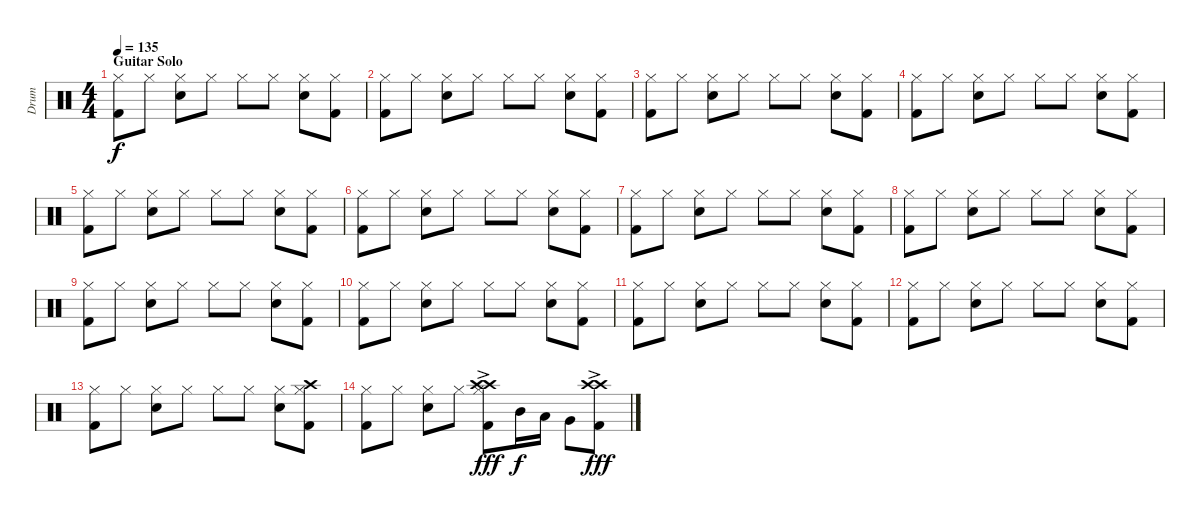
\track ("Drum" "Drum") {instrument percussion}
\staff {score}
\articulation defaults
\ts (4 4)
\section ("" "Guitar Solo")
\tempo 135
\clef neutral
\ks c
("Hi-Hat (closed)" "Kick (hit) 2").8{dy f} "Hi-Hat (closed)".8 ("Snare (hit) 2" "Hi-Hat (closed)").8 "Hi-Hat (closed)".8 "Hi-Hat (closed)".8 "Hi-Hat (closed)".8 ("Snare (hit) 2" "Hi-Hat (closed)").8 ("Hi-Hat (closed)" "Kick (hit) 2").8 |
("Hi-Hat (closed)" "Kick (hit) 2").8 "Hi-Hat (closed)".8 ("Snare (hit) 2" "Hi-Hat (closed)").8 "Hi-Hat (closed)".8 "Hi-Hat (closed)".8 "Hi-Hat (closed)".8 ("Snare (hit) 2" "Hi-Hat (closed)").8 ("Hi-Hat (closed)" "Kick (hit) 2").8 |
("Hi-Hat (closed)" "Kick (hit) 2").8 "Hi-Hat (closed)".8 ("Snare (hit) 2" "Hi-Hat (closed)").8 "Hi-Hat (closed)".8 "Hi-Hat (closed)".8 "Hi-Hat (closed)".8 ("Snare (hit) 2" "Hi-Hat (closed)").8 ("Hi-Hat (closed)" "Kick (hit) 2").8 |
("Hi-Hat (closed)" "Kick (hit) 2").8 "Hi-Hat (closed)".8 ("Snare (hit) 2" "Hi-Hat (closed)").8 "Hi-Hat (closed)".8 "Hi-Hat (closed)".8 "Hi-Hat (closed)".8 ("Snare (hit) 2" "Hi-Hat (closed)").8 ("Hi-Hat (closed)" "Kick (hit) 2").8 |
("Hi-Hat (closed)" "Kick (hit) 2").8 "Hi-Hat (closed)".8 ("Snare (hit) 2" "Hi-Hat (closed)").8 "Hi-Hat (closed)".8 "Hi-Hat (closed)".8 "Hi-Hat (closed)".8 ("Snare (hit) 2" "Hi-Hat (closed)").8 ("Hi-Hat (closed)" "Kick (hit) 2").8 |
("Hi-Hat (closed)" "Kick (hit) 2").8 "Hi-Hat (closed)".8 ("Snare (hit) 2" "Hi-Hat (closed)").8 "Hi-Hat (closed)".8 "Hi-Hat (closed)".8 "Hi-Hat (closed)".8 ("Snare (hit) 2" "Hi-Hat (closed)").8 ("Hi-Hat (closed)" "Kick (hit) 2").8 |
("Hi-Hat (closed)" "Kick (hit) 2").8 "Hi-Hat (closed)".8 ("Snare (hit) 2" "Hi-Hat (closed)").8 "Hi-Hat (closed)".8 "Hi-Hat (closed)".8 "Hi-Hat (closed)".8 ("Snare (hit) 2" "Hi-Hat (closed)").8 ("Hi-Hat (closed)" "Kick (hit) 2").8 |
("Hi-Hat (closed)" "Kick (hit) 2").8 "Hi-Hat (closed)".8 ("Snare (hit) 2" "Hi-Hat (closed)").8 "Hi-Hat (closed)".8 "Hi-Hat (closed)".8 "Hi-Hat (closed)".8 ("Snare (hit) 2" "Hi-Hat (closed)").8 ("Hi-Hat (closed)" "Kick (hit) 2").8 |
("Hi-Hat (closed)" "Kick (hit) 2").8 "Hi-Hat (closed)".8 ("Snare (hit) 2" "Hi-Hat (closed)").8 "Hi-Hat (closed)".8 "Hi-Hat (closed)".8 "Hi-Hat (closed)".8 ("Snare (hit) 2" "Hi-Hat (closed)").8 ("Hi-Hat (closed)" "Kick (hit) 2").8 |
("Hi-Hat (closed)" "Kick (hit) 2").8 "Hi-Hat (closed)".8 ("Snare (hit) 2" "Hi-Hat (closed)").8 "Hi-Hat (closed)".8 "Hi-Hat (closed)".8 "Hi-Hat (closed)".8 ("Snare (hit) 2" "Hi-Hat (closed)").8 ("Hi-Hat (closed)" "Kick (hit) 2").8 |
("Hi-Hat (closed)" "Kick (hit) 2").8 "Hi-Hat (closed)".8 ("Snare (hit) 2" "Hi-Hat (closed)").8 "Hi-Hat (closed)".8 "Hi-Hat (closed)".8 "Hi-Hat (closed)".8 ("Snare (hit) 2" "Hi-Hat (closed)").8 ("Hi-Hat (closed)" "Kick (hit) 2").8 |
("Hi-Hat (closed)" "Kick (hit) 2").8 "Hi-Hat (closed)".8 ("Snare (hit) 2" "Hi-Hat (closed)").8 "Hi-Hat (closed)".8 "Hi-Hat (closed)".8 "Hi-Hat (closed)".8 ("Snare (hit) 2" "Hi-Hat (closed)").8 ("Hi-Hat (closed)" "Kick (hit) 2").8 |
("Hi-Hat (closed)" "Kick (hit) 2").8 "Hi-Hat (closed)".8 ("Snare (hit) 2" "Hi-Hat (closed)").8 "Hi-Hat (closed)".8 "Hi-Hat (closed)".8 "Hi-Hat (closed)".8 ("Snare (hit) 2" "Hi-Hat (closed)").8 ("Crash high (hit)" "Hi-Hat (closed)" "Kick (hit) 2").8 |
("Hi-Hat (closed)" "Kick (hit) 2").8 "Hi-Hat (closed)".8 ("Snare (hit) 2" "Hi-Hat (closed)").8 "Hi-Hat (closed)".8 ("Crash high (hit)"{ac} "Crash high (hit)"{ac} "Hi-Hat (closed)" "Kick (hit) 2").8{dy fff} "Mid Tom (hit)".16{dy f} "Low Tom (hit)".16 "Very Low Tom (hit)".8 ("Crash high (hit)"{ac} "Crash high (hit)"{ac} "Kick (hit) 2").8{dy fff}
